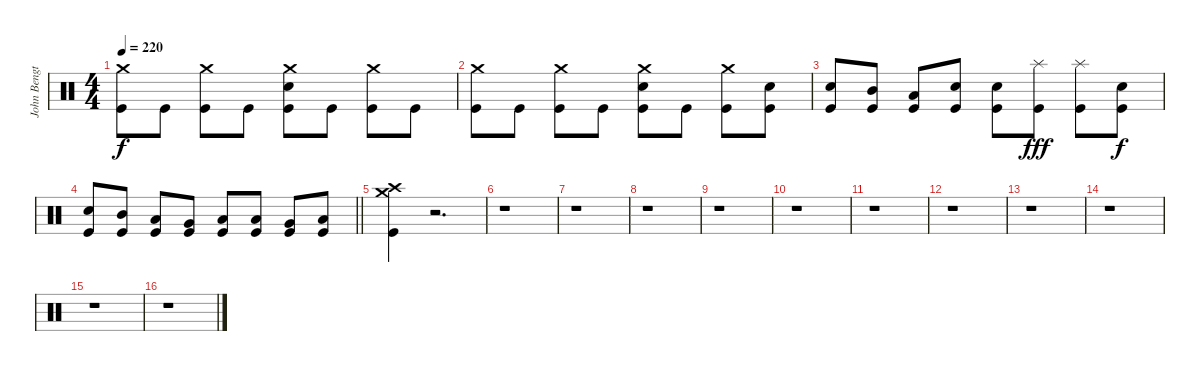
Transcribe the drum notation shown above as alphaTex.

\track ("John Bengtsson" "John Bengt") {instrument percussion}
\staff {score}
\articulation defaults
\ts (4 4)
\tempo 220
\clef neutral
\ks c
("Crash medium (hit)" "Kick (hit)").8{dy f} "Kick (hit)".8 ("Crash medium (hit)" "Kick (hit)").8 "Kick (hit)".8 ("Crash medium (hit)" "Snare (hit) 2" "Kick (hit)").8 "Kick (hit)".8 ("Crash medium (hit)" "Kick (hit)").8 "Kick (hit)".8 |
("Crash medium (hit)" "Kick (hit)").8 "Kick (hit)".8 ("Crash medium (hit)" "Kick (hit)").8 "Kick (hit)".8 ("Crash medium (hit)" "Snare (hit) 2" "Kick (hit)").8 "Kick (hit)".8 ("Crash medium (hit)" "Kick (hit)").8 ("Snare (hit) 2" "Kick (hit)").8 |
("Snare (hit) 2" "Kick (hit)").8 ("Mid Tom (hit)" "Kick (hit)").8 ("Low Tom (hit)" "Kick (hit)").8 ("Snare (hit) 2" "Kick (hit)").8 ("Snare (hit) 2" "Kick (hit)").8 ("Splash (hit)" "Kick (hit)").8{dy fff} ("Splash (hit)" "Kick (hit)").8 ("Snare (hit) 2" "Kick (hit)").8{dy f} |
\barLineRight lightlight
("Snare (hit) 2" "Kick (hit)").8 ("Mid Tom (hit)" "Kick (hit)").8 ("Low Tom (hit)" "Kick (hit)").8 ("Very Low Tom (hit)" "Kick (hit)").8 ("Low Floor Tom (hit)" "Kick (hit)").8 ("Low Tom (hit)" "Kick (hit)").8 ("Very Low Tom (hit)" "Kick (hit)").8 ("Low Floor Tom (hit)" "Kick (hit)").8 |
("Crash medium (hit)" "Crash high (hit)" "Kick (hit)").4 r.2{d} |
r.1 |
r.1 |
r.1 |
r.1 |
r.1 |
r.1 |
r.1 |
r.1 |
r.1 |
r.1 |
r.1
